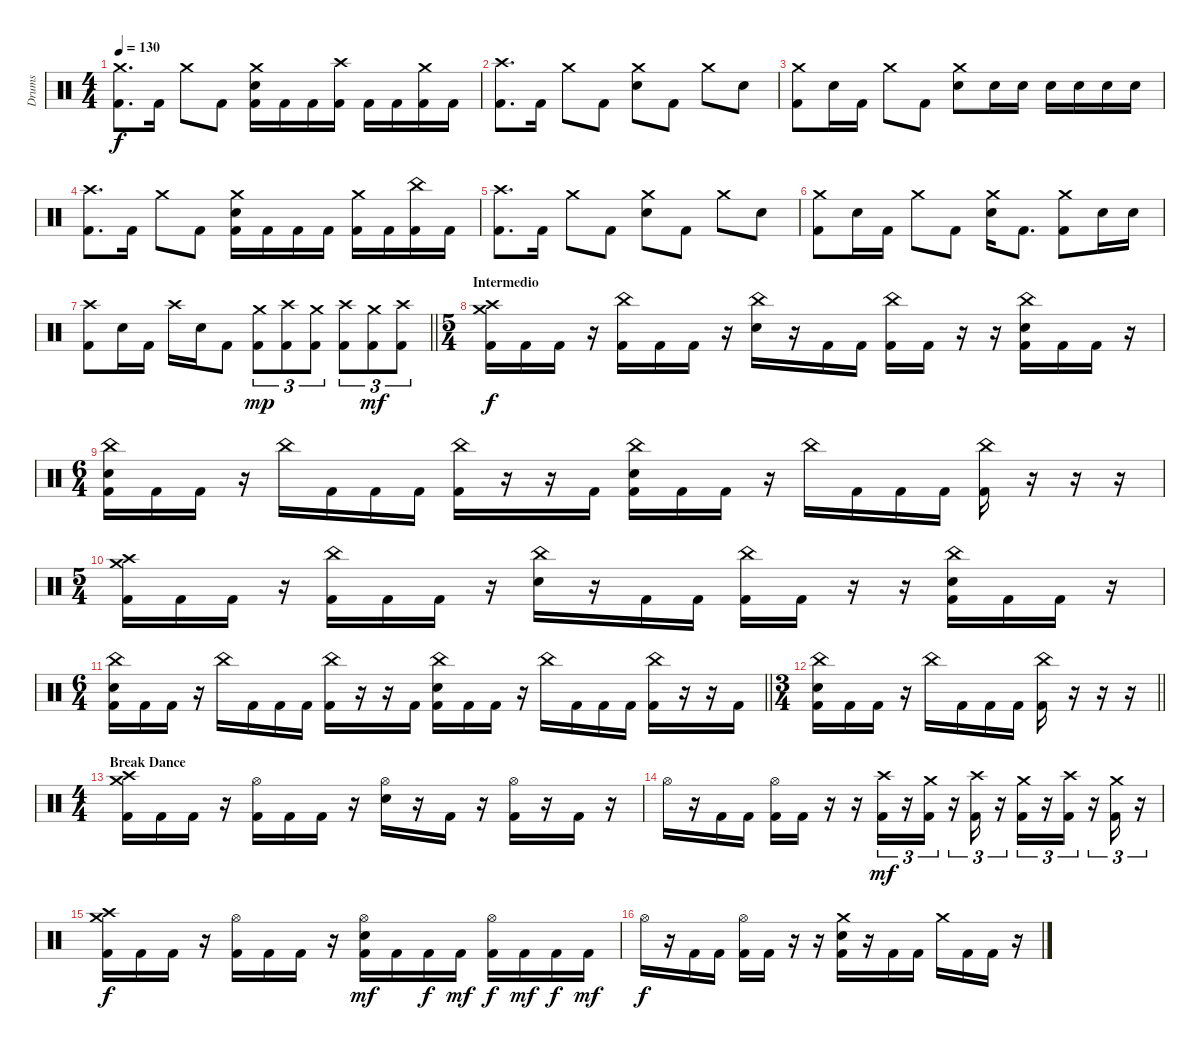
\track ("Drums" "Drums") {instrument percussion}
\staff {score}
\articulation defaults
\ts (4 4)
\tempo 130
\clef neutral
\ks c
("Crash medium (hit)" "Kick (hit) 2").8{d dy f} "Kick (hit) 2".16 "Crash medium (hit)".8 "Kick (hit) 2".8 ("Crash medium (hit)" "Electric Snare (hit)" "Kick (hit) 2").16 "Kick (hit) 2".16 "Kick (hit) 2".16 ("Crash high (hit)" "Kick (hit) 2").16 "Kick (hit) 2".16 "Kick (hit) 2".16 ("Crash medium (hit)" "Kick (hit) 2").16 "Kick (hit) 2".16 |
("Crash high (hit)" "Kick (hit) 2").8{d} "Kick (hit) 2".16 "Crash medium (hit)".8 "Kick (hit) 2".8 ("Crash medium (hit)" "Electric Snare (hit)").8 "Kick (hit) 2".8 "Crash medium (hit)".8 "Electric Snare (hit)".8 |
("Crash medium (hit)" "Kick (hit) 2").8 "Electric Snare (hit)".16 "Kick (hit) 2".16 "Crash medium (hit)".8 "Kick (hit) 2".8 ("Crash medium (hit)" "Electric Snare (hit)").8 "Electric Snare (hit)".16 "Electric Snare (hit)".16 "Electric Snare (hit)".16 "Electric Snare (hit)".16 "Electric Snare (hit)".16 "Electric Snare (hit)".16 |
("Crash high (hit)" "Kick (hit) 2").8{d} "Kick (hit) 2".16 "Crash medium (hit)".8 "Kick (hit) 2".8 ("Crash medium (hit)" "Electric Snare (hit)" "Kick (hit) 2").16 "Kick (hit) 2".16 "Kick (hit) 2".16 "Kick (hit) 2".16 ("Crash medium (hit)" "Kick (hit) 2").16 "Kick (hit) 2".16 ("China (hit)" "Kick (hit) 2").16 "Kick (hit) 2".16 |
("Crash high (hit)" "Kick (hit) 2").8{d} "Kick (hit) 2".16 "Crash medium (hit)".8 "Kick (hit) 2".8 ("Crash medium (hit)" "Electric Snare (hit)").8 "Kick (hit) 2".8 "Crash medium (hit)".8 "Electric Snare (hit)".8 |
("Crash medium (hit)" "Kick (hit) 2").8 "Electric Snare (hit)".16 "Kick (hit) 2".16 "Crash medium (hit)".8 "Kick (hit) 2".8 ("Crash medium (hit)" "Electric Snare (hit)").16 "Kick (hit) 2".8{d} ("Crash medium (hit)" "Kick (hit) 2").8 "Electric Snare (hit)".16 "Electric Snare (hit)".16 |
\barLineRight lightlight
("Crash high (hit)" "Kick (hit) 2").8 "Electric Snare (hit)".16 "Kick (hit) 2".16 "Crash high (hit)".16 "Electric Snare (hit)".16 "Kick (hit) 2".8 ("Crash medium (hit)" "Kick (hit) 2").8{tu (3 2) dy mp} ("Crash high (hit)" "Kick (hit) 2").8{tu (3 2)} ("Crash medium (hit)" "Kick (hit) 2").8{tu (3 2)} ("Crash high (hit)" "Kick (hit) 2").8{tu (3 2)} ("Crash medium (hit)" "Kick (hit) 2").8{tu (3 2) dy mf} ("Crash high (hit)" "Kick (hit) 2").8{tu (3 2)} |
\ts (5 4)
\section ("" "Intermedio")
("Crash high (hit)" "Crash medium (hit)" "Kick (hit) 2").16{dy f} "Kick (hit) 2".16 "Kick (hit) 2".16 r.16 ("China (hit)" "Kick (hit) 2").16 "Kick (hit) 2".16 "Kick (hit) 2".16 r.16 ("China (hit)" "Electric Snare (hit)").16 r.16 "Kick (hit) 2".16 "Kick (hit) 2".16 ("China (hit)" "Kick (hit) 2").16 "Kick (hit) 2".16 r.16 r.16 ("China (hit)" "Electric Snare (hit)" "Kick (hit) 2").16 "Kick (hit) 2".16 "Kick (hit) 2".16 r.16 |
\ts (6 4)
("China (hit)" "Electric Snare (hit)" "Kick (hit) 2").16 "Kick (hit) 2".16 "Kick (hit) 2".16 r.16 "China (hit)".16 "Kick (hit) 2".16 "Kick (hit) 2".16 "Kick (hit) 2".16 ("China (hit)" "Kick (hit) 2").16 r.16 r.16 "Kick (hit) 2".16 ("China (hit)" "Electric Snare (hit)" "Kick (hit) 2").16 "Kick (hit) 2".16 "Kick (hit) 2".16 r.16 "China (hit)".16 "Kick (hit) 2".16 "Kick (hit) 2".16 "Kick (hit) 2".16 ("China (hit)" "Kick (hit) 2").16 r.16 r.16 r.16 |
\ts (5 4)
("Crash medium (hit)" "Crash high (hit)" "Kick (hit) 2").16 "Kick (hit) 2".16 "Kick (hit) 2".16 r.16 ("China (hit)" "Kick (hit) 2").16 "Kick (hit) 2".16 "Kick (hit) 2".16 r.16 ("China (hit)" "Electric Snare (hit)").16 r.16 "Kick (hit) 2".16 "Kick (hit) 2".16 ("China (hit)" "Kick (hit) 2").16 "Kick (hit) 2".16 r.16 r.16 ("China (hit)" "Electric Snare (hit)" "Kick (hit) 2").16 "Kick (hit) 2".16 "Kick (hit) 2".16 r.16 |
\ts (6 4)
\barLineRight lightlight
("China (hit)" "Electric Snare (hit)" "Kick (hit) 2").16 "Kick (hit) 2".16 "Kick (hit) 2".16 r.16 "China (hit)".16 "Kick (hit) 2".16 "Kick (hit) 2".16 "Kick (hit) 2".16 ("China (hit)" "Kick (hit) 2").16 r.16 r.16 "Kick (hit) 2".16 ("China (hit)" "Electric Snare (hit)" "Kick (hit) 2").16 "Kick (hit) 2".16 "Kick (hit) 2".16 r.16 "China (hit)".16 "Kick (hit) 2".16 "Kick (hit) 2".16 "Kick (hit) 2".16 ("China (hit)" "Kick (hit) 2").16 r.16 r.16 "Kick (hit) 2".16 |
\ts (3 4)
\barLineRight lightlight
("China (hit)" "Electric Snare (hit)" "Kick (hit) 2").16 "Kick (hit) 2".16 "Kick (hit) 2".16 r.16 "China (hit)".16 "Kick (hit) 2".16 "Kick (hit) 2".16 "Kick (hit) 2".16 ("China (hit)" "Kick (hit) 2").16 r.16 r.16 r.16 |
\ts (4 4)
\section ("" "Break Dance")
("Crash high (hit)" "Crash medium (hit)" "Kick (hit) 2").16 "Kick (hit) 2".16 "Kick (hit) 2".16 r.16 ("Hi-Hat (open)" "Kick (hit) 2").16 "Kick (hit) 2".16 "Kick (hit) 2".16 r.16 ("Hi-Hat (open)" "Electric Snare (hit)").16 r.16 "Kick (hit) 2".16 r.16 ("Hi-Hat (open)" "Kick (hit) 2").16 r.16 "Kick (hit) 2".16 r.16 |
"Hi-Hat (open)".16 r.16 "Kick (hit) 2".16 "Kick (hit) 2".16 ("Hi-Hat (open)" "Kick (hit) 2").16 "Kick (hit) 2".16 r.16 r.16 ("Crash high (hit)" "Kick (hit) 2").16{tu (3 2) dy mf} r.16{tu (3 2)} ("Crash medium (hit)" "Kick (hit) 2").16{tu (3 2)} r.16{tu (3 2)} ("Crash high (hit)" "Kick (hit) 2").16{tu (3 2)} r.16{tu (3 2)} ("Crash medium (hit)" "Kick (hit) 2").16{tu (3 2)} r.16{tu (3 2)} ("Crash high (hit)" "Kick (hit) 2").16{tu (3 2)} r.16{tu (3 2)} ("Crash medium (hit)" "Kick (hit) 2").16{tu (3 2)} r.16{tu (3 2)} |
("Crash high (hit)" "Crash medium (hit)" "Kick (hit) 2").16{dy f} "Kick (hit) 2".16 "Kick (hit) 2".16 r.16 ("Hi-Hat (open)" "Kick (hit) 2").16 "Kick (hit) 2".16 "Kick (hit) 2".16 r.16 ("Hi-Hat (open)" "Electric Snare (hit)" "Kick (hit) 2").16{dy mf} "Kick (hit) 2".16 "Kick (hit) 2".16{dy f} "Kick (hit) 2".16{dy mf} ("Hi-Hat (open)" "Kick (hit) 2").16{dy f} "Kick (hit) 2".16{dy mf} "Kick (hit) 2".16{dy f} "Kick (hit) 2".16{dy mf} |
"Hi-Hat (open)".16{dy f} r.16 "Kick (hit) 2".16 "Kick (hit) 2".16 ("Hi-Hat (open)" "Kick (hit) 2").16 "Kick (hit) 2".16 r.16 r.16 ("Crash medium (hit)" "Electric Snare (hit)" "Kick (hit) 2").16 r.16 "Kick (hit) 2".16 "Kick (hit) 2".16 "Crash medium (hit)".16 "Kick (hit) 2".16 "Kick (hit) 2".16 r.16
